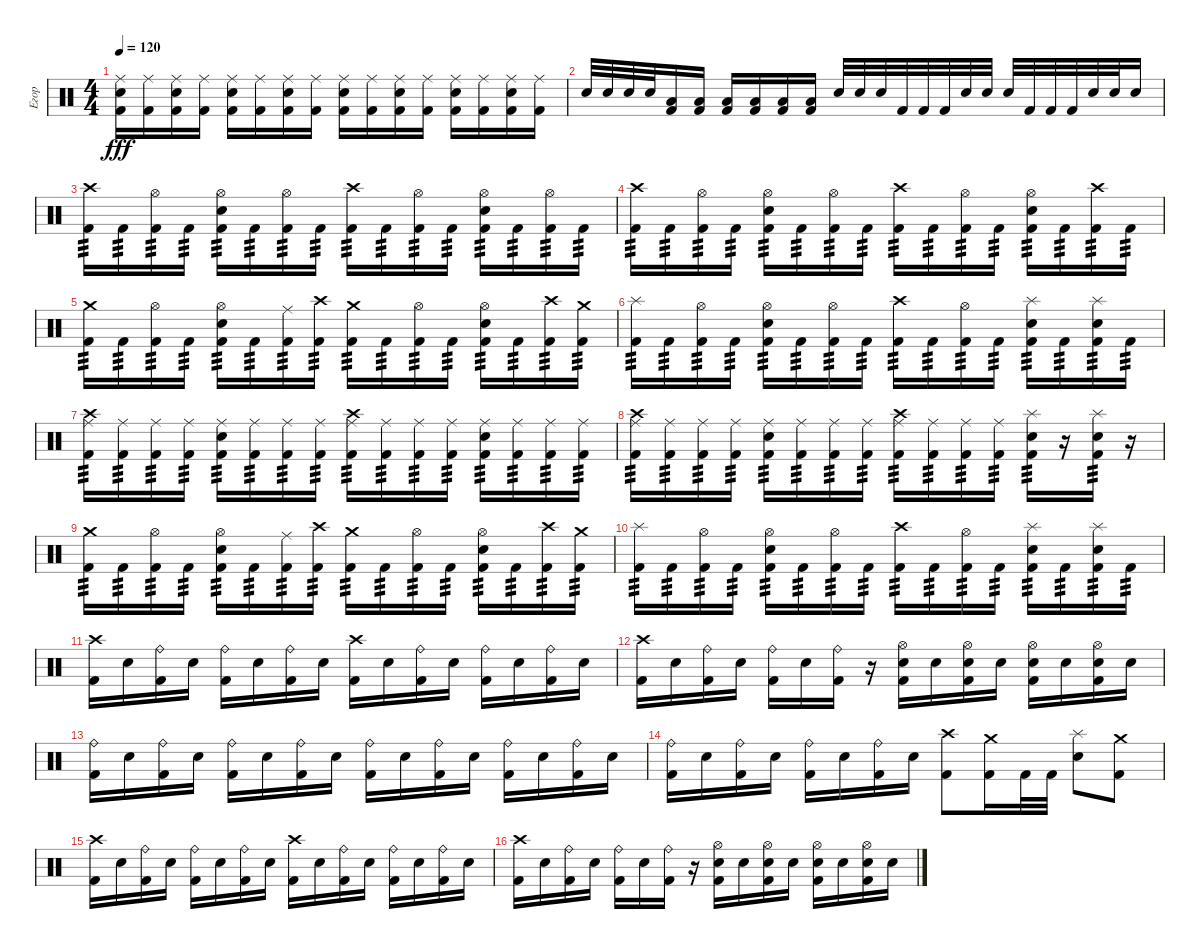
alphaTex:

\track ("Егор" "Егор") {instrument percussion}
\staff {score}
\articulation defaults
\ts (4 4)
\tempo 120
\clef neutral
\ks c
("Ride (middle)" "Snare (hit) 2" "Kick (hit) 2").16{dy fff} ("Ride (middle)" "Kick (hit) 2").16 ("Ride (middle)" "Snare (hit) 2" "Kick (hit) 2").16 ("Ride (middle)" "Kick (hit) 2").16 ("Ride (middle)" "Snare (hit) 2" "Kick (hit) 2").16 ("Ride (middle)" "Kick (hit) 2").16 ("Ride (middle)" "Snare (hit) 2" "Kick (hit) 2").16 ("Ride (middle)" "Kick (hit) 2").16 ("Ride (middle)" "Snare (hit) 2" "Kick (hit) 2").16 ("Ride (middle)" "Kick (hit) 2").16 ("Ride (middle)" "Snare (hit) 2" "Kick (hit) 2").16 ("Ride (middle)" "Kick (hit) 2").16 ("Ride (middle)" "Snare (hit) 2" "Kick (hit) 2").16 ("Ride (middle)" "Kick (hit) 2").16 ("Ride (middle)" "Snare (hit) 2" "Kick (hit) 2").16 ("Ride (middle)" "Kick (hit) 2").16 |
"Snare (hit) 2".32 "Snare (hit) 2".32 "Snare (hit) 2".32 "Snare (hit) 2".32 ("Low Tom (hit)" "Kick (hit) 2").16 ("Low Tom (hit)" "Kick (hit) 2").16 ("Low Tom (hit)" "Kick (hit) 2").16 ("Low Tom (hit)" "Kick (hit) 2").16 ("Low Floor Tom (hit)" "Kick (hit) 2").16 ("Low Floor Tom (hit)" "Kick (hit) 2").16 "Snare (hit) 2".32 "Snare (hit) 2".32 "Snare (hit) 2".32 "Kick (hit) 2".32 "Kick (hit) 2".32 "Kick (hit) 2".32 "Snare (hit) 2".32 "Snare (hit) 2".32 "Snare (hit) 2".32 "Kick (hit) 2".32 "Kick (hit) 2".32 "Kick (hit) 2".32 "Snare (hit) 2".32 "Snare (hit) 2".32 "Snare (hit) 2".16 |
("Crash high (hit)" "Kick (hit) 2").16{tp 3} "Kick (hit) 2".16{tp 3} ("Hi-Hat (open)" "Kick (hit) 2").16{tp 3} "Kick (hit) 2".16{tp 3} ("Hi-Hat (open)" "Snare (hit) 2" "Kick (hit) 2").16{tp 3} "Kick (hit) 2".16{tp 3} ("Hi-Hat (open)" "Kick (hit) 2").16{tp 3} "Kick (hit) 2".16{tp 3} ("Crash high (hit)" "Kick (hit) 2").16{tp 3} "Kick (hit) 2".16{tp 3} ("Hi-Hat (open)" "Kick (hit) 2").16{tp 3} "Kick (hit) 2".16{tp 3} ("Hi-Hat (open)" "Snare (hit) 2" "Kick (hit) 2").16{tp 3} "Kick (hit) 2".16{tp 3} ("Hi-Hat (open)" "Kick (hit) 2").16{tp 3} "Kick (hit) 2".16{tp 3} |
("Crash high (hit)" "Kick (hit) 2").16{tp 3} "Kick (hit) 2".16{tp 3} ("Hi-Hat (open)" "Kick (hit) 2").16{tp 3} "Kick (hit) 2".16{tp 3} ("Hi-Hat (open)" "Snare (hit) 2" "Kick (hit) 2").16{tp 3} "Kick (hit) 2".16{tp 3} ("Hi-Hat (open)" "Kick (hit) 2").16{tp 3} "Kick (hit) 2".16{tp 3} ("Crash high (hit)" "Kick (hit) 2").16{tp 3} "Kick (hit) 2".16{tp 3} ("Hi-Hat (open)" "Kick (hit) 2").16{tp 3} "Kick (hit) 2".16{tp 3} ("Hi-Hat (open)" "Snare (hit) 2" "Kick (hit) 2").16{tp 3} "Kick (hit) 2".16{tp 3} ("Crash high (hit)" "Kick (hit) 2").16{tp 3} "Kick (hit) 2".16{tp 3} |
("Crash medium (hit)" "Kick (hit) 2").16{tp 3} "Kick (hit) 2".16{tp 3} ("Hi-Hat (open)" "Kick (hit) 2").16{tp 3} "Kick (hit) 2".16{tp 3} ("Hi-Hat (open)" "Snare (hit) 2" "Kick (hit) 2").16{tp 3} "Kick (hit) 2".16{tp 3} ("Ride (middle)" "Kick (hit) 2").16{tp 3} ("Crash high (hit)" "Kick (hit) 2").16{tp 3} ("Crash medium (hit)" "Kick (hit) 2").16{tp 3} "Kick (hit) 2".16{tp 3} ("Hi-Hat (open)" "Kick (hit) 2").16{tp 3} "Kick (hit) 2".16{tp 3} ("Hi-Hat (open)" "Snare (hit) 2" "Kick (hit) 2").16{tp 3} "Kick (hit) 2".16{tp 3} ("Crash high (hit)" "Kick (hit) 2").16{tp 3} ("Crash medium (hit)" "Kick (hit) 2").16{tp 3} |
("Splash (hit)" "Kick (hit) 2").16{tp 3} "Kick (hit) 2".16{tp 3} ("Hi-Hat (open)" "Kick (hit) 2").16{tp 3} "Kick (hit) 2".16{tp 3} ("Hi-Hat (open)" "Snare (hit) 2" "Kick (hit) 2").16{tp 3} "Kick (hit) 2".16{tp 3} ("Hi-Hat (open)" "Kick (hit) 2").16{tp 3} "Kick (hit) 2".16{tp 3} ("Crash high (hit)" "Kick (hit) 2").16{tp 3} "Kick (hit) 2".16{tp 3} ("Hi-Hat (open)" "Kick (hit) 2").16{tp 3} "Kick (hit) 2".16{tp 3} ("Splash (hit)" "Snare (hit) 2" "Kick (hit) 2").16{tp 3} "Kick (hit) 2".16{tp 3} ("Splash (hit)" "Snare (hit) 2" "Kick (hit) 2").16{tp 3} "Kick (hit) 2".16{tp 3} |
("Ride (middle)" "Crash high (hit)" "Kick (hit) 2").16{tp 3} ("Ride (middle)" "Kick (hit) 2").16{tp 3} ("Ride (middle)" "Kick (hit) 2").16{tp 3} ("Ride (middle)" "Kick (hit) 2").16{tp 3} ("Ride (middle)" "Snare (hit) 2" "Kick (hit) 2").16{tp 3} ("Ride (middle)" "Kick (hit) 2").16{tp 3} ("Ride (middle)" "Kick (hit) 2").16{tp 3} ("Ride (middle)" "Kick (hit) 2").16{tp 3} ("Ride (middle)" "Crash high (hit)" "Kick (hit) 2").16{tp 3} ("Ride (middle)" "Kick (hit) 2").16{tp 3} ("Ride (middle)" "Kick (hit) 2").16{tp 3} ("Ride (middle)" "Kick (hit) 2").16{tp 3} ("Ride (middle)" "Snare (hit) 2" "Kick (hit) 2").16{tp 3} ("Ride (middle)" "Kick (hit) 2").16{tp 3} ("Ride (middle)" "Kick (hit) 2").16{tp 3} ("Ride (middle)" "Kick (hit) 2").16{tp 3} |
("Ride (middle)" "Crash high (hit)" "Kick (hit) 2").16{tp 3} ("Ride (middle)" "Kick (hit) 2").16{tp 3} ("Ride (middle)" "Kick (hit) 2").16{tp 3} ("Ride (middle)" "Kick (hit) 2").16{tp 3} ("Ride (middle)" "Snare (hit) 2" "Kick (hit) 2").16{tp 3} ("Ride (middle)" "Kick (hit) 2").16{tp 3} ("Ride (middle)" "Kick (hit) 2").16{tp 3} ("Ride (middle)" "Kick (hit) 2").16{tp 3} ("Ride (middle)" "Crash high (hit)" "Kick (hit) 2").16{tp 3} ("Ride (middle)" "Kick (hit) 2").16{tp 3} ("Ride (middle)" "Kick (hit) 2").16{tp 3} ("Ride (middle)" "Kick (hit) 2").16{tp 3} ("Splash (hit)" "Snare (hit) 2" "Kick (hit) 2").16{tp 3} r.16 ("Splash (hit)" "Snare (hit) 2" "Kick (hit) 2").16{tp 3} r.16 |
("Crash medium (hit)" "Kick (hit) 2").16{tp 3} "Kick (hit) 2".16{tp 3} ("Hi-Hat (open)" "Kick (hit) 2").16{tp 3} "Kick (hit) 2".16{tp 3} ("Hi-Hat (open)" "Snare (hit) 2" "Kick (hit) 2").16{tp 3} "Kick (hit) 2".16{tp 3} ("Ride (middle)" "Kick (hit) 2").16{tp 3} ("Crash high (hit)" "Kick (hit) 2").16{tp 3} ("Crash medium (hit)" "Kick (hit) 2").16{tp 3} "Kick (hit) 2".16{tp 3} ("Hi-Hat (open)" "Kick (hit) 2").16{tp 3} "Kick (hit) 2".16{tp 3} ("Hi-Hat (open)" "Snare (hit) 2" "Kick (hit) 2").16{tp 3} "Kick (hit) 2".16{tp 3} ("Crash high (hit)" "Kick (hit) 2").16{tp 3} ("Crash medium (hit)" "Kick (hit) 2").16{tp 3} |
("Splash (hit)" "Kick (hit) 2").16{tp 3} "Kick (hit) 2".16{tp 3} ("Hi-Hat (open)" "Kick (hit) 2").16{tp 3} "Kick (hit) 2".16{tp 3} ("Hi-Hat (open)" "Snare (hit) 2" "Kick (hit) 2").16{tp 3} "Kick (hit) 2".16{tp 3} ("Hi-Hat (open)" "Kick (hit) 2").16{tp 3} "Kick (hit) 2".16{tp 3} ("Crash high (hit)" "Kick (hit) 2").16{tp 3} "Kick (hit) 2".16{tp 3} ("Hi-Hat (open)" "Kick (hit) 2").16{tp 3} "Kick (hit) 2".16{tp 3} ("Splash (hit)" "Snare (hit) 2" "Kick (hit) 2").16{tp 3} "Kick (hit) 2".16{tp 3} ("Splash (hit)" "Snare (hit) 2" "Kick (hit) 2").16{tp 3} "Kick (hit) 2".16{tp 3} |
("Crash high (hit)" "Kick (hit) 2").16 "Snare (hit) 2".16 ("Ride (bell)" "Kick (hit) 2").16 "Snare (hit) 2".16 ("Ride (bell)" "Kick (hit) 2").16 "Snare (hit) 2".16 ("Ride (bell)" "Kick (hit) 2").16 "Snare (hit) 2".16 ("Crash high (hit)" "Kick (hit) 2").16 "Snare (hit) 2".16 ("Ride (bell)" "Kick (hit) 2").16 "Snare (hit) 2".16 ("Ride (bell)" "Kick (hit) 2").16 "Snare (hit) 2".16 ("Ride (bell)" "Kick (hit) 2").16 "Snare (hit) 2".16 |
("Crash high (hit)" "Kick (hit) 2").16 "Snare (hit) 2".16 ("Ride (bell)" "Kick (hit) 2").16 "Snare (hit) 2".16 ("Ride (bell)" "Kick (hit) 2").16 "Snare (hit) 2".16 ("Ride (bell)" "Kick (hit) 2").16 r.16 ("Hi-Hat (open)" "Snare (hit) 2" "Kick (hit) 2").16 "Snare (hit) 2".16 ("Hi-Hat (open)" "Snare (hit) 2" "Kick (hit) 2").16 "Snare (hit) 2".16 ("Hi-Hat (open)" "Snare (hit) 2" "Kick (hit) 2").16 "Snare (hit) 2".16 ("Hi-Hat (open)" "Snare (hit) 2" "Kick (hit) 2").16 "Snare (hit) 2".16 |
("Ride (bell)" "Kick (hit) 2").16 "Snare (hit) 2".16 ("Ride (bell)" "Kick (hit) 2").16 "Snare (hit) 2".16 ("Ride (bell)" "Kick (hit) 2").16 "Snare (hit) 2".16 ("Ride (bell)" "Kick (hit) 2").16 "Snare (hit) 2".16 ("Ride (bell)" "Kick (hit) 2").16 "Snare (hit) 2".16 ("Ride (bell)" "Kick (hit) 2").16 "Snare (hit) 2".16 ("Ride (bell)" "Kick (hit) 2").16 "Snare (hit) 2".16 ("Ride (bell)" "Kick (hit) 2").16 "Snare (hit) 2".16 |
("Ride (bell)" "Kick (hit) 2").16 "Snare (hit) 2".16 ("Ride (bell)" "Kick (hit) 2").16 "Snare (hit) 2".16 ("Ride (bell)" "Kick (hit) 2").16 "Snare (hit) 2".16 ("Ride (bell)" "Kick (hit) 2").16 "Snare (hit) 2".16 ("Crash high (hit)" "Kick (hit) 2").8 ("Crash medium (hit)" "Kick (hit) 2").16 "Kick (hit) 2".32 "Kick (hit) 2".32 ("Splash (hit)" "Snare (hit) 2").8 ("Crash medium (hit)" "Kick (hit) 2").8 |
("Crash high (hit)" "Kick (hit) 2").16 "Snare (hit) 2".16 ("Ride (bell)" "Kick (hit) 2").16 "Snare (hit) 2".16 ("Ride (bell)" "Kick (hit) 2").16 "Snare (hit) 2".16 ("Ride (bell)" "Kick (hit) 2").16 "Snare (hit) 2".16 ("Crash high (hit)" "Kick (hit) 2").16 "Snare (hit) 2".16 ("Ride (bell)" "Kick (hit) 2").16 "Snare (hit) 2".16 ("Ride (bell)" "Kick (hit) 2").16 "Snare (hit) 2".16 ("Ride (bell)" "Kick (hit) 2").16 "Snare (hit) 2".16 |
("Crash high (hit)" "Kick (hit) 2").16 "Snare (hit) 2".16 ("Ride (bell)" "Kick (hit) 2").16 "Snare (hit) 2".16 ("Ride (bell)" "Kick (hit) 2").16 "Snare (hit) 2".16 ("Ride (bell)" "Kick (hit) 2").16 r.16 ("Hi-Hat (open)" "Snare (hit) 2" "Kick (hit) 2").16 "Snare (hit) 2".16 ("Hi-Hat (open)" "Snare (hit) 2" "Kick (hit) 2").16 "Snare (hit) 2".16 ("Hi-Hat (open)" "Snare (hit) 2" "Kick (hit) 2").16 "Snare (hit) 2".16 ("Hi-Hat (open)" "Snare (hit) 2" "Kick (hit) 2").16 "Snare (hit) 2".16
